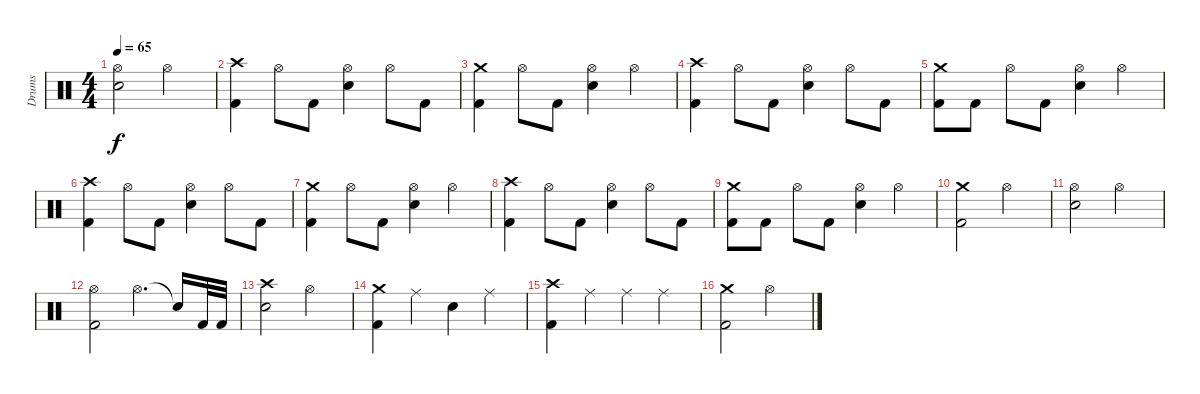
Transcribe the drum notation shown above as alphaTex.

\track ("Drums" "Drums") {instrument percussion}
\staff {score}
\articulation defaults
\ts (4 4)
\tempo 65
\clef neutral
\ks c
("Hi-Hat (open)" "Snare (hit) 2").2{dy f} "Hi-Hat (open)".2 |
("Crash high (hit)" "Kick (hit) 2").4 "Hi-Hat (open)".8 "Kick (hit) 2".8 ("Hi-Hat (open)" "Snare (hit) 2").4 "Hi-Hat (open)".8 "Kick (hit) 2".8 |
("Crash medium (hit)" "Kick (hit) 2").4 "Hi-Hat (open)".8 "Kick (hit) 2".8 ("Hi-Hat (open)" "Snare (hit) 2").4 "Hi-Hat (open)".4 |
("Crash high (hit)" "Kick (hit) 2").4 "Hi-Hat (open)".8 "Kick (hit) 2".8 ("Hi-Hat (open)" "Snare (hit) 2").4 "Hi-Hat (open)".8 "Kick (hit) 2".8 |
("Crash medium (hit)" "Kick (hit) 2").8 "Kick (hit) 2".8 "Hi-Hat (open)".8 "Kick (hit) 2".8 ("Hi-Hat (open)" "Snare (hit) 2").4 "Hi-Hat (open)".4 |
("Crash high (hit)" "Kick (hit) 2").4 "Hi-Hat (open)".8 "Kick (hit) 2".8 ("Hi-Hat (open)" "Snare (hit) 2").4 "Hi-Hat (open)".8 "Kick (hit) 2".8 |
("Crash medium (hit)" "Kick (hit) 2").4 "Hi-Hat (open)".8 "Kick (hit) 2".8 ("Hi-Hat (open)" "Snare (hit) 2").4 "Hi-Hat (open)".4 |
("Crash high (hit)" "Kick (hit) 2").4 "Hi-Hat (open)".8 "Kick (hit) 2".8 ("Hi-Hat (open)" "Snare (hit) 2").4 "Hi-Hat (open)".8 "Kick (hit) 2".8 |
("Crash medium (hit)" "Kick (hit) 2").8 "Kick (hit) 2".8 "Hi-Hat (open)".8 "Kick (hit) 2".8 ("Hi-Hat (open)" "Snare (hit) 2").4 "Hi-Hat (open)".4 |
("Crash medium (hit)" "Kick (hit) 2").2 "Hi-Hat (open)".2 |
("Hi-Hat (open)" "Snare (hit) 2").2 "Hi-Hat (open)".2 |
("Hi-Hat (open)" "Kick (hit) 2").2 "Hi-Hat (open)".4{d} "Snare (hit)"{t}.16 "Kick (hit) 2".32 "Kick (hit) 2".32 |
("Crash high (hit)" "Snare (hit) 2").2 "Hi-Hat (open)".2 |
("Crash medium (hit)" "Kick (hit) 2").4 "Ride (middle)".4 "Snare (hit) 2".4 "Ride (middle)".4 |
("Crash high (hit)" "Kick (hit) 2").4 "Ride (middle)".4 "Ride (middle)".4 "Ride (middle)".4 |
("Crash medium (hit)" "Kick (hit) 2").2 "Hi-Hat (open)".2
